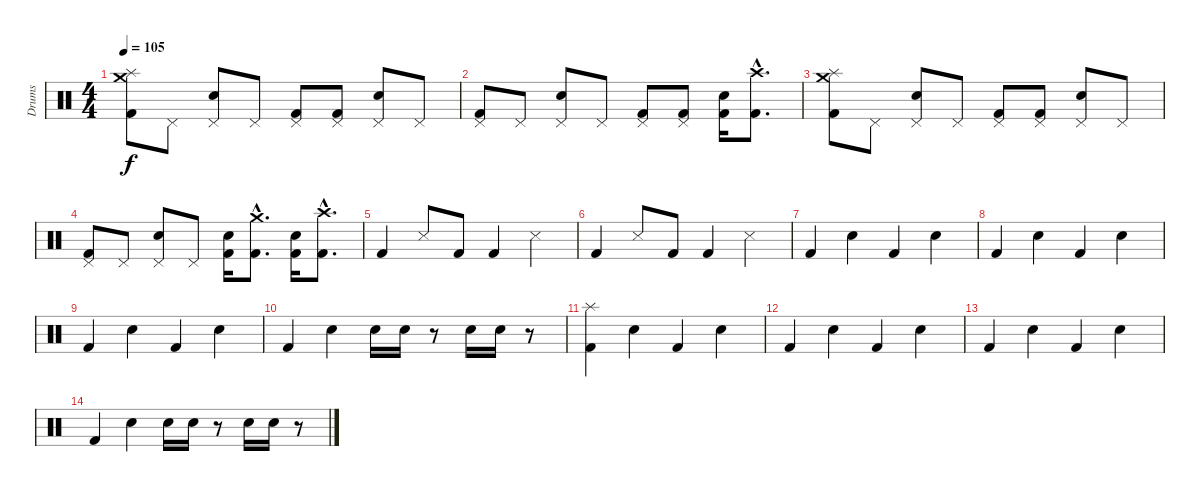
\track ("Drums" "Drums") {instrument percussion}
\staff {score}
\articulation defaults
\ts (4 4)
\tempo 105
\clef neutral
\ks c
("Crash medium (hit)" "Splash (hit)" "Kick (hit) 2").8{dy f} "Pedal Hi-Hat (hit)".8 ("Pedal Hi-Hat (hit)" "Electric Snare (hit)").8 "Pedal Hi-Hat (hit)".8 ("Pedal Hi-Hat (hit)" "Kick (hit) 2").8 ("Pedal Hi-Hat (hit)" "Kick (hit) 2").8 ("Pedal Hi-Hat (hit)" "Electric Snare (hit)").8 "Pedal Hi-Hat (hit)".8 |
("Pedal Hi-Hat (hit)" "Kick (hit) 2").8 "Pedal Hi-Hat (hit)".8 ("Pedal Hi-Hat (hit)" "Electric Snare (hit)").8 "Pedal Hi-Hat (hit)".8 ("Pedal Hi-Hat (hit)" "Kick (hit) 2").8 ("Pedal Hi-Hat (hit)" "Kick (hit) 2").8 ("Electric Snare (hit)" "Kick (hit) 2").16 ("Crash high (hit)"{hac} "Kick (hit) 2"{hac}).8{d} |
("Crash medium (hit)" "Splash (hit)" "Kick (hit) 2").8 "Pedal Hi-Hat (hit)".8 ("Pedal Hi-Hat (hit)" "Electric Snare (hit)").8 "Pedal Hi-Hat (hit)".8 ("Pedal Hi-Hat (hit)" "Kick (hit) 2").8 ("Pedal Hi-Hat (hit)" "Kick (hit) 2").8 ("Pedal Hi-Hat (hit)" "Electric Snare (hit)").8 "Pedal Hi-Hat (hit)".8 |
("Pedal Hi-Hat (hit)" "Kick (hit) 2").8 "Pedal Hi-Hat (hit)".8 ("Pedal Hi-Hat (hit)" "Electric Snare (hit)").8 "Pedal Hi-Hat (hit)".8 ("Electric Snare (hit)" "Kick (hit) 2").16 ("Crash medium (hit)"{hac} "Kick (hit) 2"{hac}).8{d} ("Electric Snare (hit)" "Kick (hit) 2").16 ("Crash high (hit)"{hac} "Kick (hit) 2"{hac}).8{d} |
"Kick (hit) 2".4 "Snare (side stick) 3".8 "Kick (hit) 2".8 "Kick (hit) 2".4 "Snare (side stick) 3".4 |
"Kick (hit) 2".4 "Snare (side stick) 3".8 "Kick (hit) 2".8 "Kick (hit) 2".4 "Snare (side stick) 3".4 |
"Kick (hit) 2".4 "Electric Snare (hit)".4 "Kick (hit) 2".4 "Electric Snare (hit)".4 |
"Kick (hit) 2".4 "Electric Snare (hit)".4 "Kick (hit) 2".4 "Electric Snare (hit)".4 |
"Kick (hit) 2".4 "Electric Snare (hit)".4 "Kick (hit) 2".4 "Electric Snare (hit)".4 |
"Kick (hit) 2".4 "Electric Snare (hit)".4 "Electric Snare (hit)".16 "Electric Snare (hit)".16 r.8 "Electric Snare (hit)".16 "Electric Snare (hit)".16 r.8 |
("Splash (hit)" "Kick (hit) 2").4{volume 12} "Electric Snare (hit)".4 "Kick (hit) 2".4 "Electric Snare (hit)".4 |
"Kick (hit) 2".4{volume 8} "Electric Snare (hit)".4 "Kick (hit) 2".4 "Electric Snare (hit)".4 |
"Kick (hit) 2".4{volume 4} "Electric Snare (hit)".4 "Kick (hit) 2".4 "Electric Snare (hit)".4 |
"Kick (hit) 2".4{volume 0} "Electric Snare (hit)".4 "Electric Snare (hit)".16 "Electric Snare (hit)".16 r.8 "Electric Snare (hit)".16 "Electric Snare (hit)".16 r.8
